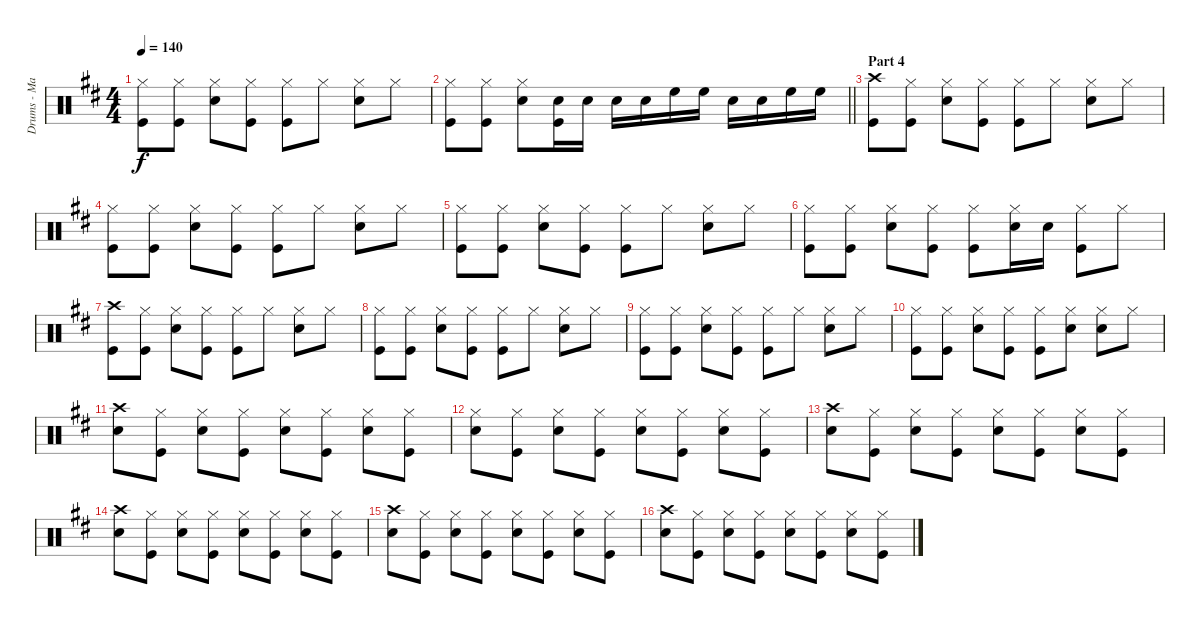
\track ("Drums - Matt Helders" "Drums - Ma") {instrument percussion}
\staff {score}
\articulation defaults
\ts (4 4)
\tempo 140
\clef neutral
\ks d
("Hi-Hat (closed)" "Kick (hit)").8{dy f} ("Hi-Hat (closed)" "Kick (hit)").8 ("Hi-Hat (closed)" "Snare (hit) 2").8 ("Hi-Hat (closed)" "Kick (hit)").8 ("Hi-Hat (closed)" "Kick (hit)").8 "Hi-Hat (closed)".8 ("Hi-Hat (closed)" "Snare (hit) 2").8 "Hi-Hat (closed)".8 |
\barLineRight lightlight
("Hi-Hat (closed)" "Kick (hit)").8 ("Hi-Hat (closed)" "Kick (hit)").8 ("Hi-Hat (closed)" "Snare (hit) 2").8 ("Snare (hit) 2" "Kick (hit)").16 "Snare (hit) 2".16 "Snare (hit) 2".16 "Snare (hit) 2".16 "High Floor Tom (hit)".16 "High Floor Tom (hit)".16 "Snare (hit) 2".16 "Snare (hit) 2".16 "High Floor Tom (hit)".16 "High Floor Tom (hit)".16 |
\section ("" "Part 4")
("Crash high (hit)" "Kick (hit)").8 ("Hi-Hat (closed)" "Kick (hit)").8 ("Hi-Hat (closed)" "Snare (hit) 2").8 ("Hi-Hat (closed)" "Kick (hit)").8 ("Hi-Hat (closed)" "Kick (hit)").8 "Hi-Hat (closed)".8 ("Hi-Hat (closed)" "Snare (hit) 2").8 "Hi-Hat (closed)".8 |
("Hi-Hat (closed)" "Kick (hit)").8 ("Hi-Hat (closed)" "Kick (hit)").8 ("Hi-Hat (closed)" "Snare (hit) 2").8 ("Hi-Hat (closed)" "Kick (hit)").8 ("Hi-Hat (closed)" "Kick (hit)").8 "Hi-Hat (closed)".8 ("Hi-Hat (closed)" "Snare (hit) 2").8 "Hi-Hat (closed)".8 |
("Hi-Hat (closed)" "Kick (hit)").8 ("Hi-Hat (closed)" "Kick (hit)").8 ("Hi-Hat (closed)" "Snare (hit) 2").8 ("Hi-Hat (closed)" "Kick (hit)").8 ("Hi-Hat (closed)" "Kick (hit)").8 "Hi-Hat (closed)".8 ("Hi-Hat (closed)" "Snare (hit) 2").8 "Hi-Hat (closed)".8 |
("Hi-Hat (closed)" "Kick (hit)").8 ("Hi-Hat (closed)" "Kick (hit)").8 ("Hi-Hat (closed)" "Snare (hit) 2").8 ("Hi-Hat (closed)" "Kick (hit)").8 ("Hi-Hat (closed)" "Kick (hit)").8 ("Hi-Hat (closed)" "Snare (hit) 2").16 "Snare (hit) 2".16 ("Hi-Hat (closed)" "Kick (hit)").8 "Hi-Hat (closed)".8 |
("Crash high (hit)" "Kick (hit)").8 ("Hi-Hat (closed)" "Kick (hit)").8 ("Hi-Hat (closed)" "Snare (hit) 2").8 ("Hi-Hat (closed)" "Kick (hit)").8 ("Hi-Hat (closed)" "Kick (hit)").8 "Hi-Hat (closed)".8 ("Hi-Hat (closed)" "Snare (hit) 2").8 "Hi-Hat (closed)".8 |
("Hi-Hat (closed)" "Kick (hit)").8 ("Hi-Hat (closed)" "Kick (hit)").8 ("Hi-Hat (closed)" "Snare (hit) 2").8 ("Hi-Hat (closed)" "Kick (hit)").8 ("Hi-Hat (closed)" "Kick (hit)").8 "Hi-Hat (closed)".8 ("Hi-Hat (closed)" "Snare (hit) 2").8 "Hi-Hat (closed)".8 |
("Hi-Hat (closed)" "Kick (hit)").8 ("Hi-Hat (closed)" "Kick (hit)").8 ("Hi-Hat (closed)" "Snare (hit) 2").8 ("Hi-Hat (closed)" "Kick (hit)").8 ("Hi-Hat (closed)" "Kick (hit)").8 "Hi-Hat (closed)".8 ("Hi-Hat (closed)" "Snare (hit) 2").8 "Hi-Hat (closed)".8 |
("Hi-Hat (closed)" "Kick (hit)").8 ("Hi-Hat (closed)" "Kick (hit)").8 ("Hi-Hat (closed)" "Snare (hit) 2").8 ("Hi-Hat (closed)" "Kick (hit)").8 ("Hi-Hat (closed)" "Kick (hit)").8 ("Hi-Hat (closed)" "Snare (hit) 2").8 ("Hi-Hat (closed)" "Snare (hit) 2").8 "Hi-Hat (closed)".8 |
("Crash high (hit)" "Snare (hit) 2").8 ("Hi-Hat (closed)" "Kick (hit)").8 ("Hi-Hat (closed)" "Snare (hit) 2").8 ("Hi-Hat (closed)" "Kick (hit)").8 ("Hi-Hat (closed)" "Snare (hit) 2").8 ("Hi-Hat (closed)" "Kick (hit)").8 ("Hi-Hat (closed)" "Snare (hit) 2").8 ("Hi-Hat (closed)" "Kick (hit)").8 |
("Hi-Hat (closed)" "Snare (hit) 2").8 ("Hi-Hat (closed)" "Kick (hit)").8 ("Hi-Hat (closed)" "Snare (hit) 2").8 ("Hi-Hat (closed)" "Kick (hit)").8 ("Hi-Hat (closed)" "Snare (hit) 2").8 ("Hi-Hat (closed)" "Kick (hit)").8 ("Hi-Hat (closed)" "Snare (hit) 2").8 ("Hi-Hat (closed)" "Kick (hit)").8 |
("Crash high (hit)" "Snare (hit) 2").8 ("Hi-Hat (closed)" "Kick (hit)").8 ("Hi-Hat (closed)" "Snare (hit) 2").8 ("Hi-Hat (closed)" "Kick (hit)").8 ("Hi-Hat (closed)" "Snare (hit) 2").8 ("Hi-Hat (closed)" "Kick (hit)").8 ("Hi-Hat (closed)" "Snare (hit) 2").8 ("Hi-Hat (closed)" "Kick (hit)").8 |
("Crash high (hit)" "Snare (hit) 2").8 ("Hi-Hat (closed)" "Kick (hit)").8 ("Hi-Hat (closed)" "Snare (hit) 2").8 ("Hi-Hat (closed)" "Kick (hit)").8 ("Hi-Hat (closed)" "Snare (hit) 2").8 ("Hi-Hat (closed)" "Kick (hit)").8 ("Hi-Hat (closed)" "Snare (hit) 2").8 ("Hi-Hat (closed)" "Kick (hit)").8 |
("Crash high (hit)" "Snare (hit) 2").8 ("Hi-Hat (closed)" "Kick (hit)").8 ("Hi-Hat (closed)" "Snare (hit) 2").8 ("Hi-Hat (closed)" "Kick (hit)").8 ("Hi-Hat (closed)" "Snare (hit) 2").8 ("Hi-Hat (closed)" "Kick (hit)").8 ("Hi-Hat (closed)" "Snare (hit) 2").8 ("Hi-Hat (closed)" "Kick (hit)").8 |
("Crash high (hit)" "Snare (hit) 2").8 ("Hi-Hat (closed)" "Kick (hit)").8 ("Hi-Hat (closed)" "Snare (hit) 2").8 ("Hi-Hat (closed)" "Kick (hit)").8 ("Hi-Hat (closed)" "Snare (hit) 2").8 ("Hi-Hat (closed)" "Kick (hit)").8 ("Hi-Hat (closed)" "Snare (hit) 2").8 ("Hi-Hat (closed)" "Kick (hit)").8
